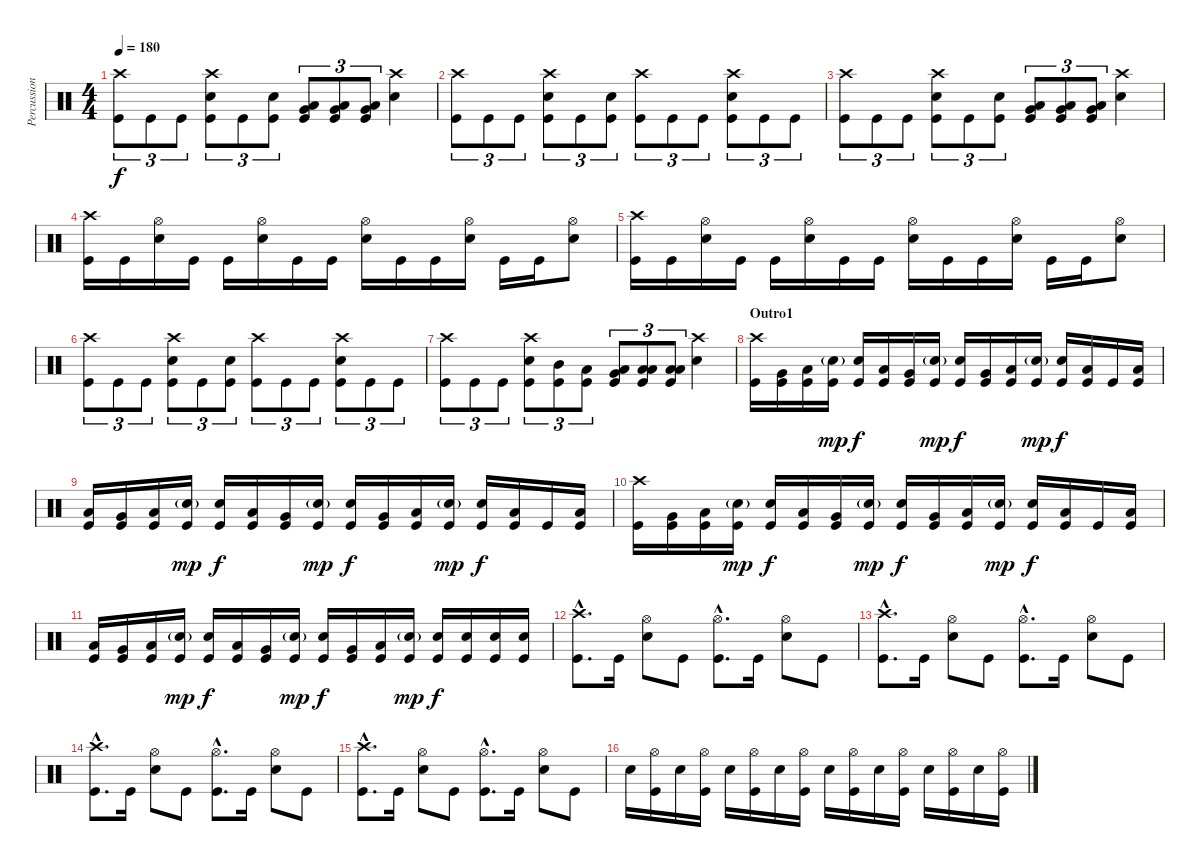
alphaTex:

\track ("Percussions" "Percussion") {instrument percussion}
\staff {score}
\articulation defaults
\ts (4 4)
\tempo 180
\clef neutral
\ks c
("Crash high (hit)" "Kick (hit)").8{tu (3 2) dy f} "Kick (hit)".8{tu (3 2)} "Kick (hit)".8{tu (3 2)} ("Crash high (hit)" "Electric Snare (hit)" "Kick (hit)").8{tu (3 2)} "Kick (hit)".8{tu (3 2)} ("Electric Snare (hit)" "Kick (hit)").8{tu (3 2)} ("Very Low Tom (hit)" "Low Floor Tom (hit)" "Kick (hit)").8{tu (3 2)} ("Very Low Tom (hit)" "Low Floor Tom (hit)" "Kick (hit)").8{tu (3 2)} ("Very Low Tom (hit)" "Low Floor Tom (hit)" "Kick (hit)").8{tu (3 2)} ("Crash high (hit)" "Electric Snare (hit)").4 |
("Crash high (hit)" "Kick (hit)").8{tu (3 2)} "Kick (hit)".8{tu (3 2)} "Kick (hit)".8{tu (3 2)} ("Crash high (hit)" "Electric Snare (hit)" "Kick (hit)").8{tu (3 2)} "Kick (hit)".8{tu (3 2)} ("Electric Snare (hit)" "Kick (hit)").8{tu (3 2)} ("Crash high (hit)" "Kick (hit)").8{tu (3 2)} "Kick (hit)".8{tu (3 2)} "Kick (hit)".8{tu (3 2)} ("Crash high (hit)" "Electric Snare (hit)" "Kick (hit)").8{tu (3 2)} "Kick (hit)".8{tu (3 2)} "Kick (hit)".8{tu (3 2)} |
("Crash high (hit)" "Kick (hit)").8{tu (3 2)} "Kick (hit)".8{tu (3 2)} "Kick (hit)".8{tu (3 2)} ("Crash high (hit)" "Electric Snare (hit)" "Kick (hit)").8{tu (3 2)} "Kick (hit)".8{tu (3 2)} ("Electric Snare (hit)" "Kick (hit)").8{tu (3 2)} ("Very Low Tom (hit)" "Low Floor Tom (hit)" "Kick (hit)").8{tu (3 2)} ("Very Low Tom (hit)" "Low Floor Tom (hit)" "Kick (hit)").8{tu (3 2)} ("Very Low Tom (hit)" "Low Floor Tom (hit)" "Kick (hit)").8{tu (3 2)} ("Crash high (hit)" "Electric Snare (hit)").4 |
("Crash high (hit)" "Kick (hit)").16 "Kick (hit)".16 ("Hi-Hat (open)" "Electric Snare (hit)").16 "Kick (hit)".16 "Kick (hit)".16 ("Hi-Hat (open)" "Electric Snare (hit)").16 "Kick (hit)".16 "Kick (hit)".16 ("Hi-Hat (open)" "Electric Snare (hit)").16 "Kick (hit)".16 "Kick (hit)".16 ("Hi-Hat (open)" "Electric Snare (hit)").16 "Kick (hit)".16 "Kick (hit)".16 ("Hi-Hat (open)" "Electric Snare (hit)").8 |
("Crash high (hit)" "Kick (hit)").16 "Kick (hit)".16 ("Hi-Hat (open)" "Electric Snare (hit)").16 "Kick (hit)".16 "Kick (hit)".16 ("Hi-Hat (open)" "Electric Snare (hit)").16 "Kick (hit)".16 "Kick (hit)".16 ("Hi-Hat (open)" "Electric Snare (hit)").16 "Kick (hit)".16 "Kick (hit)".16 ("Hi-Hat (open)" "Electric Snare (hit)").16 "Kick (hit)".16 "Kick (hit)".16 ("Hi-Hat (open)" "Electric Snare (hit)").8 |
("Crash high (hit)" "Kick (hit)").8{tu (3 2)} "Kick (hit)".8{tu (3 2)} "Kick (hit)".8{tu (3 2)} ("Crash high (hit)" "Electric Snare (hit)" "Kick (hit)").8{tu (3 2)} "Kick (hit)".8{tu (3 2)} ("Electric Snare (hit)" "Kick (hit)").8{tu (3 2)} ("Crash high (hit)" "Kick (hit)").8{tu (3 2)} "Kick (hit)".8{tu (3 2)} "Kick (hit)".8{tu (3 2)} ("Crash high (hit)" "Electric Snare (hit)" "Kick (hit)").8{tu (3 2)} "Kick (hit)".8{tu (3 2)} "Kick (hit)".8{tu (3 2)} |
("Crash high (hit)" "Kick (hit)").8{tu (3 2)} "Kick (hit)".8{tu (3 2)} "Kick (hit)".8{tu (3 2)} ("Crash high (hit)" "Electric Snare (hit)" "Kick (hit)").8{tu (3 2)} ("Mid Tom (hit)" "Kick (hit)").8{tu (3 2)} ("Low Tom (hit)" "Kick (hit)").8{tu (3 2)} ("Very Low Tom (hit)" "Low Floor Tom (hit)" "Kick (hit)").8{tu (3 2)} ("Low Floor Tom (hit)" "Low Floor Tom (hit)" "Kick (hit)").8{tu (3 2)} ("Low Floor Tom (hit)" "Low Floor Tom (hit)" "Kick (hit)").8{tu (3 2)} ("Crash high (hit)" "Electric Snare (hit)").4 |
\section ("" "Outro1")
("Crash high (hit)" "Kick (hit)").16 ("Very Low Tom (hit)" "Kick (hit)").16 ("Low Floor Tom (hit)" "Kick (hit)").16 ("Electric Snare (hit)"{g} "Kick (hit)").16{dy mp} ("Electric Snare (hit)" "Kick (hit)").16{dy f} ("Low Tom (hit)" "Kick (hit)").16 ("Very Low Tom (hit)" "Kick (hit)").16 ("Electric Snare (hit)"{g} "Kick (hit)").16{dy mp} ("Electric Snare (hit)" "Kick (hit)").16{dy f} ("Very Low Tom (hit)" "Kick (hit)").16 ("Low Floor Tom (hit)" "Kick (hit)").16 ("Electric Snare (hit)"{g} "Kick (hit)").16{dy mp} ("Electric Snare (hit)" "Kick (hit)").16{dy f} ("Low Tom (hit)" "Kick (hit)").16 "Kick (hit)".16 ("Low Floor Tom (hit)" "Kick (hit)").16 |
("Low Tom (hit)" "Kick (hit)").16 ("Very Low Tom (hit)" "Kick (hit)").16 ("Low Floor Tom (hit)" "Kick (hit)").16 ("Electric Snare (hit)"{g} "Kick (hit)").16{dy mp} ("Electric Snare (hit)" "Kick (hit)").16{dy f} ("Low Tom (hit)" "Kick (hit)").16 ("Very Low Tom (hit)" "Kick (hit)").16 ("Electric Snare (hit)"{g} "Kick (hit)").16{dy mp} ("Electric Snare (hit)" "Kick (hit)").16{dy f} ("Very Low Tom (hit)" "Kick (hit)").16 ("Low Floor Tom (hit)" "Kick (hit)").16 ("Electric Snare (hit)"{g} "Kick (hit)").16{dy mp} ("Electric Snare (hit)" "Kick (hit)").16{dy f} ("Low Tom (hit)" "Kick (hit)").16 "Kick (hit)".16 ("Low Floor Tom (hit)" "Kick (hit)").16 |
("Crash high (hit)" "Kick (hit)").16 ("Very Low Tom (hit)" "Kick (hit)").16 ("Low Floor Tom (hit)" "Kick (hit)").16 ("Electric Snare (hit)"{g} "Kick (hit)").16{dy mp} ("Electric Snare (hit)" "Kick (hit)").16{dy f} ("Low Tom (hit)" "Kick (hit)").16 ("Very Low Tom (hit)" "Kick (hit)").16 ("Electric Snare (hit)"{g} "Kick (hit)").16{dy mp} ("Electric Snare (hit)" "Kick (hit)").16{dy f} ("Very Low Tom (hit)" "Kick (hit)").16 ("Low Floor Tom (hit)" "Kick (hit)").16 ("Electric Snare (hit)"{g} "Kick (hit)").16{dy mp} ("Electric Snare (hit)" "Kick (hit)").16{dy f} ("Low Tom (hit)" "Kick (hit)").16 "Kick (hit)".16 ("Low Floor Tom (hit)" "Kick (hit)").16 |
("Low Tom (hit)" "Kick (hit)").16 ("Very Low Tom (hit)" "Kick (hit)").16 ("Low Floor Tom (hit)" "Kick (hit)").16 ("Electric Snare (hit)"{g} "Kick (hit)").16{dy mp} ("Electric Snare (hit)" "Kick (hit)").16{dy f} ("Low Tom (hit)" "Kick (hit)").16 ("Very Low Tom (hit)" "Kick (hit)").16 ("Electric Snare (hit)"{g} "Kick (hit)").16{dy mp} ("Electric Snare (hit)" "Kick (hit)").16{dy f} ("Very Low Tom (hit)" "Kick (hit)").16 ("Low Floor Tom (hit)" "Kick (hit)").16 ("Electric Snare (hit)"{g} "Kick (hit)").16{dy mp} ("Electric Snare (hit)" "Kick (hit)").16{dy f} ("Electric Snare (hit)" "Kick (hit)").16 ("Electric Snare (hit)" "Kick (hit)").16 ("Electric Snare (hit)" "Kick (hit)").16 |
("Crash high (hit)"{hac} "Kick (hit)"{hac}).8{d} "Kick (hit)".16 ("Hi-Hat (open)" "Electric Snare (hit)").8 "Kick (hit)".8 ("Hi-Hat (open)"{hac} "Kick (hit)"{hac}).8{d} "Kick (hit)".16 ("Hi-Hat (open)" "Electric Snare (hit)").8 "Kick (hit)".8 |
("Crash high (hit)"{hac} "Kick (hit)"{hac}).8{d} "Kick (hit)".16 ("Hi-Hat (open)" "Electric Snare (hit)").8 "Kick (hit)".8 ("Hi-Hat (open)"{hac} "Kick (hit)"{hac}).8{d} "Kick (hit)".16 ("Hi-Hat (open)" "Electric Snare (hit)").8 "Kick (hit)".8 |
("Crash high (hit)"{hac} "Kick (hit)"{hac}).8{d} "Kick (hit)".16 ("Hi-Hat (open)" "Electric Snare (hit)").8 "Kick (hit)".8 ("Hi-Hat (open)"{hac} "Kick (hit)"{hac}).8{d} "Kick (hit)".16 ("Hi-Hat (open)" "Electric Snare (hit)").8 "Kick (hit)".8 |
("Crash high (hit)"{hac} "Kick (hit)"{hac}).8{d} "Kick (hit)".16 ("Hi-Hat (open)" "Electric Snare (hit)").8 "Kick (hit)".8 ("Hi-Hat (open)"{hac} "Kick (hit)"{hac}).8{d} "Kick (hit)".16 ("Hi-Hat (open)" "Electric Snare (hit)").8 "Kick (hit)".8 |
"Electric Snare (hit)".16 ("Hi-Hat (open)" "Kick (hit)").16 "Electric Snare (hit)".16 ("Hi-Hat (open)" "Kick (hit)").16 "Electric Snare (hit)".16 ("Hi-Hat (open)" "Kick (hit)").16 "Electric Snare (hit)".16 ("Hi-Hat (open)" "Kick (hit)").16 "Electric Snare (hit)".16 ("Hi-Hat (open)" "Kick (hit)").16 "Electric Snare (hit)".16 ("Hi-Hat (open)" "Kick (hit)").16 "Electric Snare (hit)".16 ("Hi-Hat (open)" "Kick (hit)").16 "Electric Snare (hit)".16 ("Hi-Hat (open)" "Kick (hit)").16
